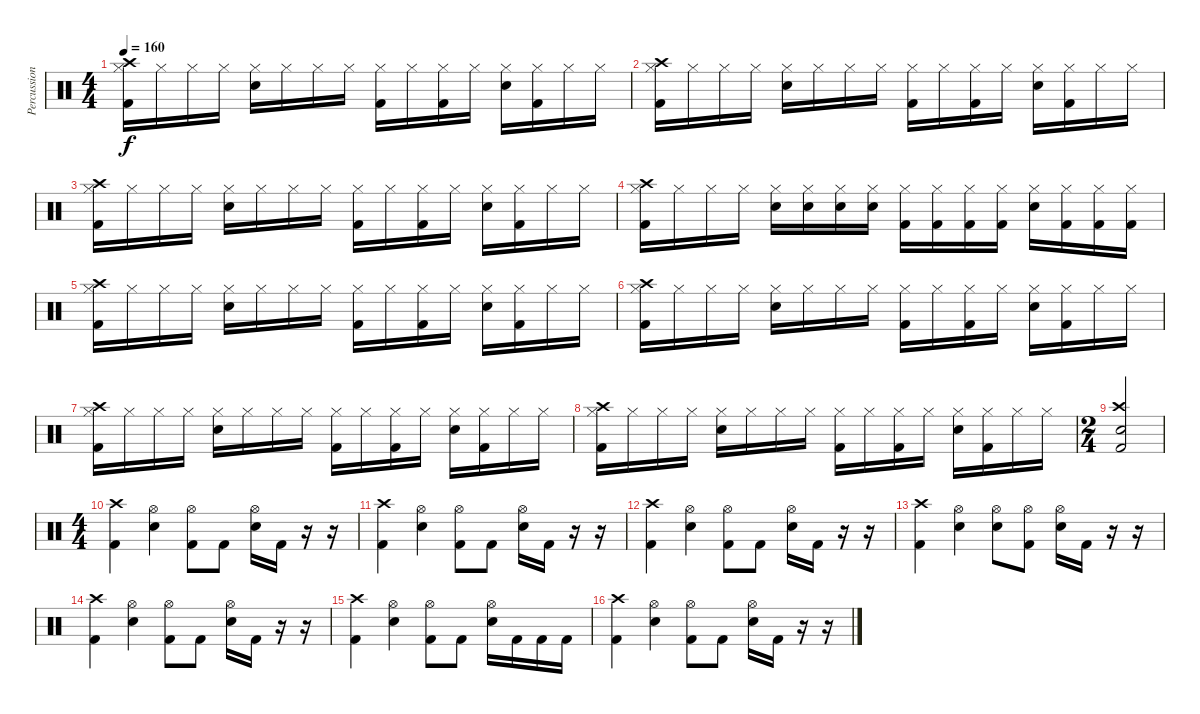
\track ("Percussion" "Percussion") {instrument percussion}
\staff {score}
\articulation defaults
\ts (4 4)
\tempo 160
\clef neutral
\ks c
("Kick (hit) 2" "Hi-Hat (closed)" "Crash high (hit)").16{dy f} "Hi-Hat (closed)".16 "Hi-Hat (closed)".16 "Hi-Hat (closed)".16 ("Electric Snare (hit)" "Hi-Hat (closed)").16 "Hi-Hat (closed)".16 "Hi-Hat (closed)".16 "Hi-Hat (closed)".16 ("Kick (hit) 2" "Hi-Hat (closed)").16 "Hi-Hat (closed)".16 ("Kick (hit) 2" "Hi-Hat (closed)").16 "Hi-Hat (closed)".16 ("Electric Snare (hit)" "Hi-Hat (closed)").16 ("Kick (hit) 2" "Hi-Hat (closed)").16 "Hi-Hat (closed)".16 "Hi-Hat (closed)".16 |
("Kick (hit) 2" "Hi-Hat (closed)" "Crash high (hit)").16 "Hi-Hat (closed)".16 "Hi-Hat (closed)".16 "Hi-Hat (closed)".16 ("Electric Snare (hit)" "Hi-Hat (closed)").16 "Hi-Hat (closed)".16 "Hi-Hat (closed)".16 "Hi-Hat (closed)".16 ("Kick (hit) 2" "Hi-Hat (closed)").16 "Hi-Hat (closed)".16 ("Kick (hit) 2" "Hi-Hat (closed)").16 "Hi-Hat (closed)".16 ("Electric Snare (hit)" "Hi-Hat (closed)").16 ("Kick (hit) 2" "Hi-Hat (closed)").16 "Hi-Hat (closed)".16 "Hi-Hat (closed)".16 |
("Kick (hit) 2" "Hi-Hat (closed)" "Crash high (hit)").16 "Hi-Hat (closed)".16 "Hi-Hat (closed)".16 "Hi-Hat (closed)".16 ("Electric Snare (hit)" "Hi-Hat (closed)").16 "Hi-Hat (closed)".16 "Hi-Hat (closed)".16 "Hi-Hat (closed)".16 ("Kick (hit) 2" "Hi-Hat (closed)").16 "Hi-Hat (closed)".16 ("Kick (hit) 2" "Hi-Hat (closed)").16 "Hi-Hat (closed)".16 ("Electric Snare (hit)" "Hi-Hat (closed)").16 ("Kick (hit) 2" "Hi-Hat (closed)").16 "Hi-Hat (closed)".16 "Hi-Hat (closed)".16 |
("Kick (hit) 2" "Hi-Hat (closed)" "Crash high (hit)").16 "Hi-Hat (closed)".16 "Hi-Hat (closed)".16 "Hi-Hat (closed)".16 ("Electric Snare (hit)" "Hi-Hat (closed)").16 ("Electric Snare (hit)" "Hi-Hat (closed)").16 ("Electric Snare (hit)" "Hi-Hat (closed)").16 ("Electric Snare (hit)" "Hi-Hat (closed)").16 ("Kick (hit) 2" "Hi-Hat (closed)").16 ("Kick (hit) 2" "Hi-Hat (closed)").16 ("Kick (hit) 2" "Hi-Hat (closed)").16 ("Kick (hit) 2" "Hi-Hat (closed)").16 ("Electric Snare (hit)" "Hi-Hat (closed)").16 ("Kick (hit) 2" "Hi-Hat (closed)").16 ("Kick (hit) 2" "Hi-Hat (closed)").16 ("Kick (hit) 2" "Hi-Hat (closed)").16 |
("Kick (hit) 2" "Hi-Hat (closed)" "Crash high (hit)").16 "Hi-Hat (closed)".16 "Hi-Hat (closed)".16 "Hi-Hat (closed)".16 ("Electric Snare (hit)" "Hi-Hat (closed)").16 "Hi-Hat (closed)".16 "Hi-Hat (closed)".16 "Hi-Hat (closed)".16 ("Kick (hit) 2" "Hi-Hat (closed)").16 "Hi-Hat (closed)".16 ("Kick (hit) 2" "Hi-Hat (closed)").16 "Hi-Hat (closed)".16 ("Electric Snare (hit)" "Hi-Hat (closed)").16 ("Kick (hit) 2" "Hi-Hat (closed)").16 "Hi-Hat (closed)".16 "Hi-Hat (closed)".16 |
("Kick (hit) 2" "Hi-Hat (closed)" "Crash high (hit)").16 "Hi-Hat (closed)".16 "Hi-Hat (closed)".16 "Hi-Hat (closed)".16 ("Electric Snare (hit)" "Hi-Hat (closed)").16 "Hi-Hat (closed)".16 "Hi-Hat (closed)".16 "Hi-Hat (closed)".16 ("Kick (hit) 2" "Hi-Hat (closed)").16 "Hi-Hat (closed)".16 ("Kick (hit) 2" "Hi-Hat (closed)").16 "Hi-Hat (closed)".16 ("Electric Snare (hit)" "Hi-Hat (closed)").16 ("Kick (hit) 2" "Hi-Hat (closed)").16 "Hi-Hat (closed)".16 "Hi-Hat (closed)".16 |
("Kick (hit) 2" "Hi-Hat (closed)" "Crash high (hit)").16 "Hi-Hat (closed)".16 "Hi-Hat (closed)".16 "Hi-Hat (closed)".16 ("Electric Snare (hit)" "Hi-Hat (closed)").16 "Hi-Hat (closed)".16 "Hi-Hat (closed)".16 "Hi-Hat (closed)".16 ("Kick (hit) 2" "Hi-Hat (closed)").16 "Hi-Hat (closed)".16 ("Kick (hit) 2" "Hi-Hat (closed)").16 "Hi-Hat (closed)".16 ("Electric Snare (hit)" "Hi-Hat (closed)").16 ("Kick (hit) 2" "Hi-Hat (closed)").16 "Hi-Hat (closed)".16 "Hi-Hat (closed)".16 |
("Kick (hit) 2" "Hi-Hat (closed)" "Crash high (hit)").16 "Hi-Hat (closed)".16 "Hi-Hat (closed)".16 "Hi-Hat (closed)".16 ("Electric Snare (hit)" "Hi-Hat (closed)").16 "Hi-Hat (closed)".16 "Hi-Hat (closed)".16 "Hi-Hat (closed)".16 ("Kick (hit) 2" "Hi-Hat (closed)").16 "Hi-Hat (closed)".16 ("Kick (hit) 2" "Hi-Hat (closed)").16 "Hi-Hat (closed)".16 ("Electric Snare (hit)" "Hi-Hat (closed)").16 ("Kick (hit) 2" "Hi-Hat (closed)").16 "Hi-Hat (closed)".16 "Hi-Hat (closed)".16 |
\ts (2 4)
("Crash high (hit)" "Kick (hit) 2" "Electric Snare (hit)").2 |
\ts (4 4)
("Crash high (hit)" "Kick (hit) 2").4 ("Hi-Hat (open)" "Electric Snare (hit)").4 ("Hi-Hat (open)" "Kick (hit) 2").8 "Kick (hit) 2".8 ("Hi-Hat (open)" "Electric Snare (hit)").16 "Kick (hit) 2".16 r.16 r.16 |
("Crash high (hit)" "Kick (hit) 2").4 ("Hi-Hat (open)" "Electric Snare (hit)").4 ("Hi-Hat (open)" "Kick (hit) 2").8 "Kick (hit) 2".8 ("Hi-Hat (open)" "Electric Snare (hit)").16 "Kick (hit) 2".16 r.16 r.16 |
("Crash high (hit)" "Kick (hit) 2").4 ("Hi-Hat (open)" "Electric Snare (hit)").4 ("Hi-Hat (open)" "Kick (hit) 2").8 "Kick (hit) 2".8 ("Hi-Hat (open)" "Electric Snare (hit)").16 "Kick (hit) 2".16 r.16 r.16 |
("Crash high (hit)" "Kick (hit) 2").4 ("Hi-Hat (open)" "Electric Snare (hit)").4 ("Hi-Hat (open)" "Electric Snare (hit)").8 ("Hi-Hat (open)" "Kick (hit) 2").8 ("Hi-Hat (open)" "Electric Snare (hit)").16 "Kick (hit) 2".16 r.16 r.16 |
("Crash high (hit)" "Kick (hit) 2").4 ("Hi-Hat (open)" "Electric Snare (hit)").4 ("Hi-Hat (open)" "Kick (hit) 2").8 "Kick (hit) 2".8 ("Hi-Hat (open)" "Electric Snare (hit)").16 "Kick (hit) 2".16 r.16 r.16 |
("Crash high (hit)" "Kick (hit) 2").4 ("Hi-Hat (open)" "Electric Snare (hit)").4 ("Hi-Hat (open)" "Kick (hit) 2").8 "Kick (hit) 2".8 ("Hi-Hat (open)" "Electric Snare (hit)").16 "Kick (hit) 2".16 "Kick (hit) 2".16 "Kick (hit) 2".16 |
("Crash high (hit)" "Kick (hit) 2").4 ("Hi-Hat (open)" "Electric Snare (hit)").4 ("Hi-Hat (open)" "Kick (hit) 2").8 "Kick (hit) 2".8 ("Hi-Hat (open)" "Electric Snare (hit)").16 "Kick (hit) 2".16 r.16 r.16
